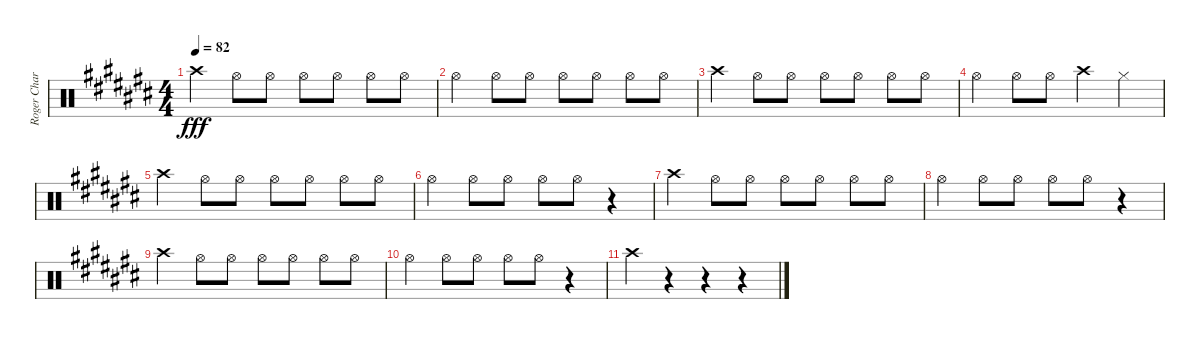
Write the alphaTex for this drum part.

\track ("Roger Charlet" "Roger Char") {instrument percussion}
\staff {score}
\articulation defaults
\ts (4 4)
\tempo 82
\clef neutral
\ks c# "Crash high (hit)".4{dy fff} "Hi-Hat (open)".8 "Hi-Hat (open)".8 "Hi-Hat (open)".8 "Hi-Hat (open)".8 "Hi-Hat (open)".8 "Hi-Hat (open)".8
|
"Hi-Hat (open)".4 "Hi-Hat (open)".8 "Hi-Hat (open)".8 "Hi-Hat (open)".8 "Hi-Hat (open)".8 "Hi-Hat (open)".8 "Hi-Hat (open)".8 |
"Crash high (hit)".4 "Hi-Hat (open)".8 "Hi-Hat (open)".8 "Hi-Hat (open)".8 "Hi-Hat (open)".8 "Hi-Hat (open)".8 "Hi-Hat (open)".8 |
"Hi-Hat (open)".4 "Hi-Hat (open)".8 "Hi-Hat (open)".8 "Crash high (hit)".4 "Hi-Hat (closed)".4 |
"Crash high (hit)".4 "Hi-Hat (open)".8 "Hi-Hat (open)".8 "Hi-Hat (open)".8 "Hi-Hat (open)".8 "Hi-Hat (open)".8 "Hi-Hat (open)".8 |
"Hi-Hat (open)".4 "Hi-Hat (open)".8 "Hi-Hat (open)".8 "Hi-Hat (open)".8 "Hi-Hat (open)".8 r.4 |
"Crash high (hit)".4 "Hi-Hat (open)".8 "Hi-Hat (open)".8 "Hi-Hat (open)".8 "Hi-Hat (open)".8 "Hi-Hat (open)".8 "Hi-Hat (open)".8 |
"Hi-Hat (open)".4 "Hi-Hat (open)".8 "Hi-Hat (open)".8 "Hi-Hat (open)".8 "Hi-Hat (open)".8 r.4 |
"Crash high (hit)".4 "Hi-Hat (open)".8 "Hi-Hat (open)".8 "Hi-Hat (open)".8 "Hi-Hat (open)".8 "Hi-Hat (open)".8 "Hi-Hat (open)".8 |
"Hi-Hat (open)".4 "Hi-Hat (open)".8 "Hi-Hat (open)".8 "Hi-Hat (open)".8 "Hi-Hat (open)".8 r.4 |
"Crash high (hit)".4 r.4 r.4 r.4
